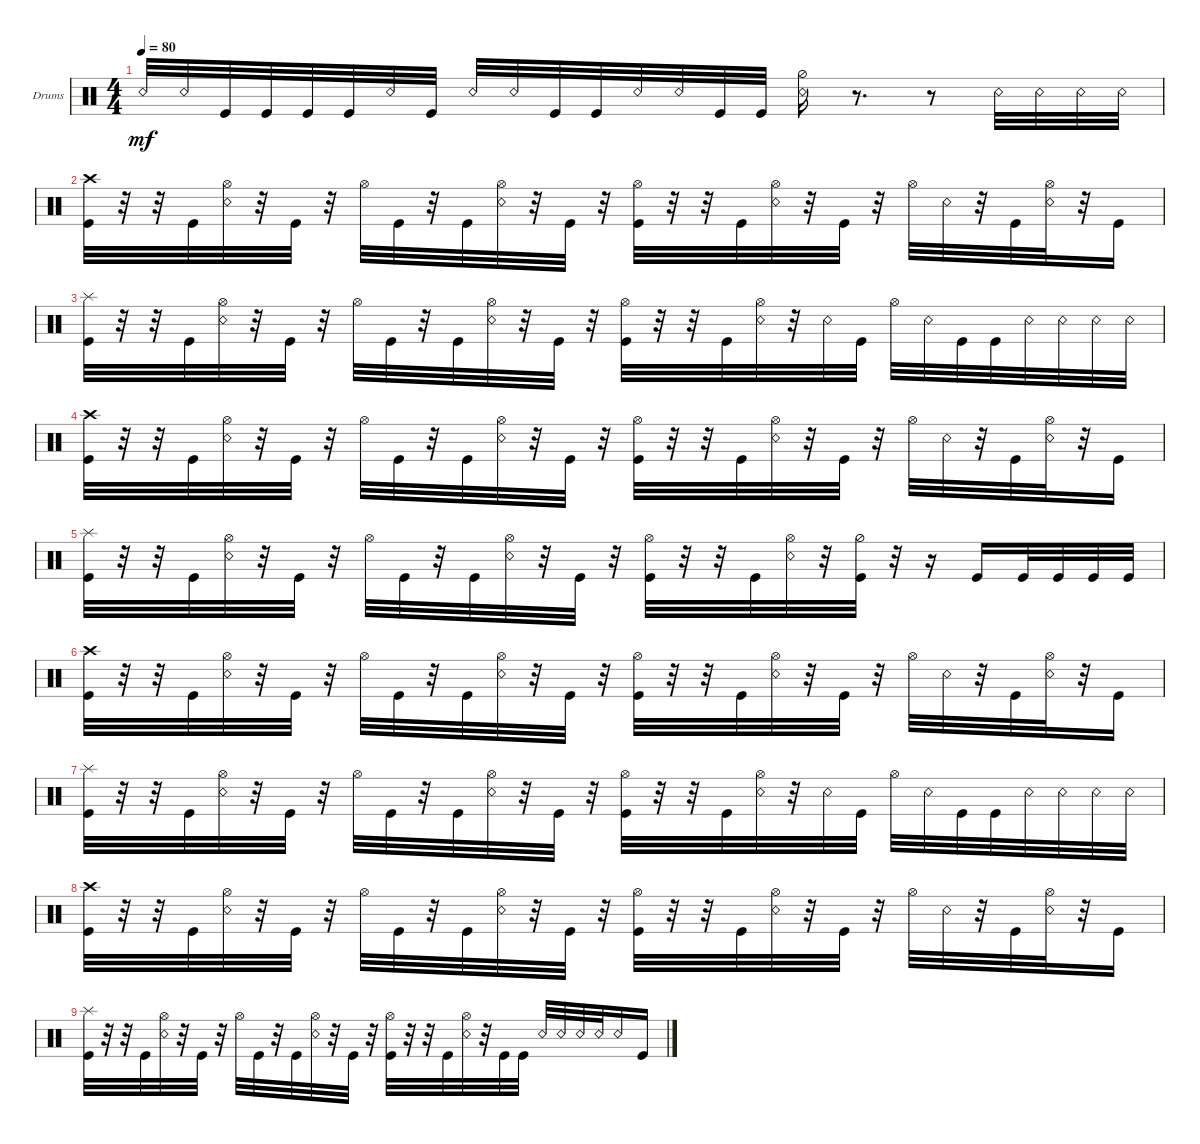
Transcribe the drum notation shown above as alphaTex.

\defaultSystemsLayout 4
\bracketExtendMode groupsimilarinstruments
\firstSystemTrackNameOrientation horizontal
\otherSystemsTrackNameOrientation horizontal
\track ("Drumkit" "Drums") {instrument percussion}
\staff {score}
\articulation defaults
\ts (4 4)
\tempo 80
\clef neutral
\ks c "Snare (rim shot)".32{dy mf} "Snare (rim shot)".32 "Kick (hit)".32 "Kick (hit)".32 "Kick (hit)".32 "Kick (hit)".32 "Snare (rim shot)".32 "Kick (hit)".32 "Snare (rim shot)".32 "Snare (rim shot)".32 "Kick (hit)".32 "Kick (hit)".32 "Snare (rim shot)".32 "Snare (rim shot)".32 "Kick (hit)".32 "Kick (hit)".32
("Snare (rim shot)" "Hi-Hat (half)").16 r.8{d} r.8 "Snare (rim shot)".32 "Snare (rim shot)".32 "Snare (rim shot)".32 "Snare (rim shot)".32 |
("Kick (hit)" "Crash high (hit)").32 r.32 r.32 "Kick (hit)".32 ("Snare (rim shot)" "Hi-Hat (open)").32 r.32 "Kick (hit)".32 r.32 "Hi-Hat (open)".32 "Kick (hit)".32 r.32 "Kick (hit)".32 ("Snare (rim shot)" "Hi-Hat (open)").32 r.32 "Kick (hit)".32 r.32 ("Kick (hit)" "Hi-Hat (open)").32 r.32 r.32 "Kick (hit)".32 ("Snare (rim shot)" "Hi-Hat (open)").32 r.32 "Kick (hit)".32 r.32 "Hi-Hat (open)".32 "Snare (rim shot)".32 r.32 "Kick (hit)".32 ("Snare (rim shot)" "Hi-Hat (open)").32 r.32 "Kick (hit)".16 |
("Kick (hit)" "Splash (hit)").32 r.32 r.32 "Kick (hit)".32 ("Snare (rim shot)" "Hi-Hat (open)").32 r.32 "Kick (hit)".32 r.32 "Hi-Hat (open)".32 "Kick (hit)".32 r.32 "Kick (hit)".32 ("Snare (rim shot)" "Hi-Hat (open)").32 r.32 "Kick (hit)".32 r.32 ("Kick (hit)" "Hi-Hat (open)").32 r.32 r.32 "Kick (hit)".32 ("Snare (rim shot)" "Hi-Hat (open)").32 r.32 "Snare (rim shot)".32 "Kick (hit)".32 "Hi-Hat (open)".32 "Snare (rim shot)".32 "Kick (hit)".32 "Kick (hit)".32 "Snare (rim shot)".32 "Snare (rim shot)".32 "Snare (rim shot)".32 "Snare (rim shot)".32 |
("Kick (hit)" "Crash high (hit)").32 r.32 r.32 "Kick (hit)".32 ("Snare (rim shot)" "Hi-Hat (open)").32 r.32 "Kick (hit)".32 r.32 "Hi-Hat (open)".32 "Kick (hit)".32 r.32 "Kick (hit)".32 ("Snare (rim shot)" "Hi-Hat (open)").32 r.32 "Kick (hit)".32 r.32 ("Kick (hit)" "Hi-Hat (open)").32 r.32 r.32 "Kick (hit)".32 ("Snare (rim shot)" "Hi-Hat (open)").32 r.32 "Kick (hit)".32 r.32 "Hi-Hat (open)".32 "Snare (rim shot)".32 r.32 "Kick (hit)".32 ("Snare (rim shot)" "Hi-Hat (open)").32 r.32 "Kick (hit)".16 |
("Kick (hit)" "Splash (hit)").32 r.32 r.32 "Kick (hit)".32 ("Snare (rim shot)" "Hi-Hat (open)").32 r.32 "Kick (hit)".32 r.32 "Hi-Hat (open)".32 "Kick (hit)".32 r.32 "Kick (hit)".32 ("Snare (rim shot)" "Hi-Hat (open)").32 r.32 "Kick (hit)".32 r.32 ("Kick (hit)" "Hi-Hat (open)").32 r.32 r.32 "Kick (hit)".32 ("Snare (rim shot)" "Hi-Hat (open)").32 r.32 ("Kick (hit)" "Hi-Hat (half)").32 r.32 r.16 "Kick (hit)".16 "Kick (hit)".32 "Kick (hit)".32 "Kick (hit)".32 "Kick (hit)".32 |
("Kick (hit)" "Crash high (hit)").32 r.32 r.32 "Kick (hit)".32 ("Snare (rim shot)" "Hi-Hat (open)").32 r.32 "Kick (hit)".32 r.32 "Hi-Hat (open)".32 "Kick (hit)".32 r.32 "Kick (hit)".32 ("Snare (rim shot)" "Hi-Hat (open)").32 r.32 "Kick (hit)".32 r.32 ("Kick (hit)" "Hi-Hat (open)").32 r.32 r.32 "Kick (hit)".32 ("Snare (rim shot)" "Hi-Hat (open)").32 r.32 "Kick (hit)".32 r.32 "Hi-Hat (open)".32 "Snare (rim shot)".32 r.32 "Kick (hit)".32 ("Snare (rim shot)" "Hi-Hat (open)").32 r.32 "Kick (hit)".16 |
("Kick (hit)" "Splash (hit)").32 r.32 r.32 "Kick (hit)".32 ("Snare (rim shot)" "Hi-Hat (open)").32 r.32 "Kick (hit)".32 r.32 "Hi-Hat (open)".32 "Kick (hit)".32 r.32 "Kick (hit)".32 ("Snare (rim shot)" "Hi-Hat (open)").32 r.32 "Kick (hit)".32 r.32 ("Kick (hit)" "Hi-Hat (open)").32 r.32 r.32 "Kick (hit)".32 ("Snare (rim shot)" "Hi-Hat (open)").32 r.32 "Snare (rim shot)".32 "Kick (hit)".32 "Hi-Hat (open)".32 "Snare (rim shot)".32 "Kick (hit)".32 "Kick (hit)".32 "Snare (rim shot)".32 "Snare (rim shot)".32 "Snare (rim shot)".32 "Snare (rim shot)".32 |
("Kick (hit)" "Crash high (hit)").32 r.32 r.32 "Kick (hit)".32 ("Snare (rim shot)" "Hi-Hat (open)").32 r.32 "Kick (hit)".32 r.32 "Hi-Hat (open)".32 "Kick (hit)".32 r.32 "Kick (hit)".32 ("Snare (rim shot)" "Hi-Hat (open)").32 r.32 "Kick (hit)".32 r.32 ("Kick (hit)" "Hi-Hat (open)").32 r.32 r.32 "Kick (hit)".32 ("Snare (rim shot)" "Hi-Hat (open)").32 r.32 "Kick (hit)".32 r.32 "Hi-Hat (open)".32 "Snare (rim shot)".32 r.32 "Kick (hit)".32 ("Snare (rim shot)" "Hi-Hat (open)").32 r.32 "Kick (hit)".16 |
("Kick (hit)" "Splash (hit)").32 r.32 r.32 "Kick (hit)".32 ("Snare (rim shot)" "Hi-Hat (open)").32 r.32 "Kick (hit)".32 r.32 "Hi-Hat (open)".32 "Kick (hit)".32 r.32 "Kick (hit)".32 ("Snare (rim shot)" "Hi-Hat (open)").32 r.32 "Kick (hit)".32 r.32 ("Kick (hit)" "Hi-Hat (open)").32 r.32 r.32 "Kick (hit)".32 ("Snare (rim shot)" "Hi-Hat (open)").32 r.32 "Kick (hit)".32 "Kick (hit)".32 "Snare (rim shot)".32 "Snare (rim shot)".32 "Snare (rim shot)".32 "Snare (rim shot)".32 "Snare (rim shot)".16 "Kick (hit)".16
